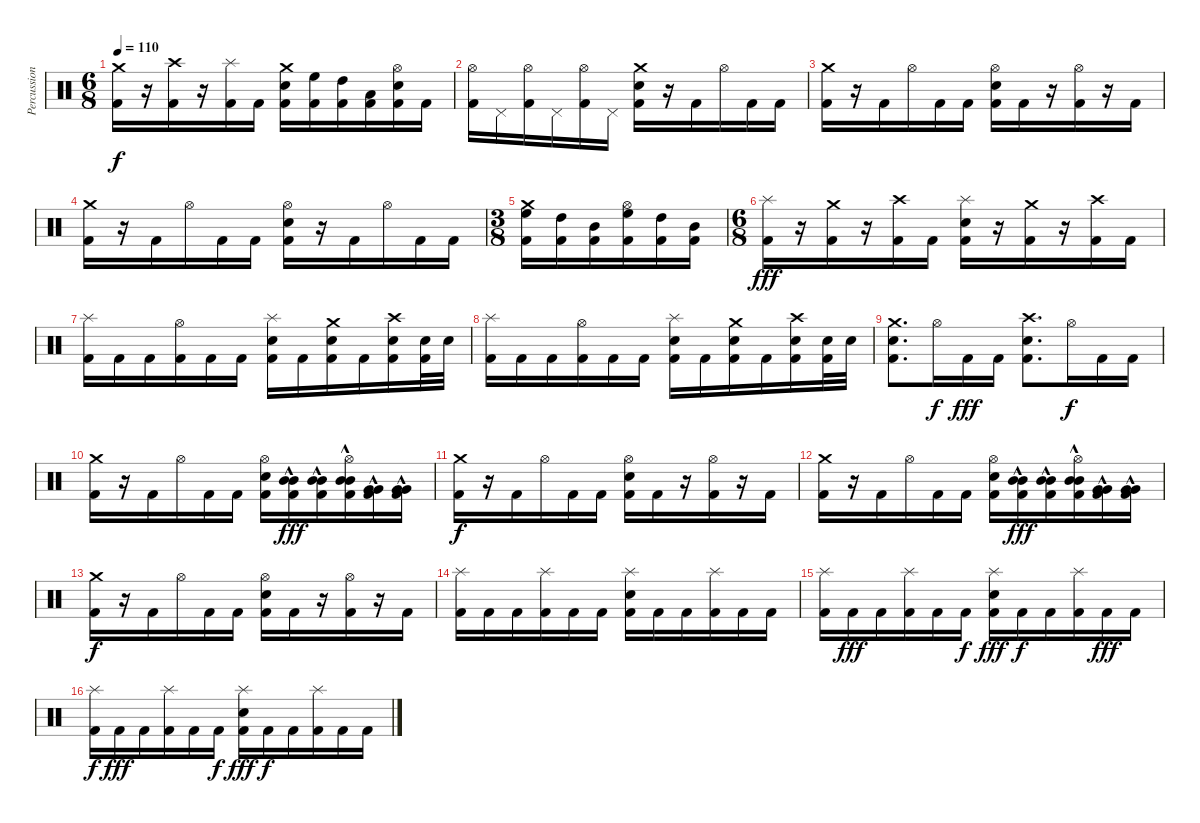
\track ("Percussion" "Percussion") {instrument percussion}
\staff {score}
\articulation defaults
\ts (6 8)
\tempo 110
\clef neutral
\ks c
("Crash medium (hit)" "Kick (hit) 2").16{dy f} r.16 ("Crash high (hit)" "Kick (hit) 2").16 r.16 ("Splash (hit)" "Kick (hit) 2").16 "Kick (hit) 2".16 ("Crash medium (hit)" "Snare (hit) 2" "Kick (hit) 2").16 ("High Floor Tom (hit)" "Kick (hit) 2").16 ("High Tom (hit)" "Kick (hit) 2").16 ("Low Tom (hit)" "Kick (hit) 2").16 ("Hi-Hat (open)" "Snare (hit) 2" "Kick (hit) 2").16 "Kick (hit) 2".16 |
("Hi-Hat (open)" "Kick (hit) 2").16 "Pedal Hi-Hat (hit)".16 ("Hi-Hat (open)" "Kick (hit) 2").16 "Pedal Hi-Hat (hit)".16 ("Hi-Hat (open)" "Kick (hit) 2").16 "Pedal Hi-Hat (hit)".16 ("Crash medium (hit)" "Snare (hit) 2" "Kick (hit) 2").16 r.16 "Kick (hit) 2".16 "Hi-Hat (open)".16 "Kick (hit) 2".16 "Kick (hit) 2".16 |
("Crash medium (hit)" "Kick (hit) 2").16 r.16 "Kick (hit) 2".16 "Hi-Hat (open)".16 "Kick (hit) 2".16 "Kick (hit) 2".16 ("Hi-Hat (open)" "Snare (hit) 2" "Kick (hit) 2").16 "Kick (hit) 2".16 r.16 ("Hi-Hat (open)" "Kick (hit) 2").16 r.16 "Kick (hit) 2".16 |
("Crash medium (hit)" "Kick (hit) 2").16 r.16 "Kick (hit) 2".16 "Hi-Hat (open)".16 "Kick (hit) 2".16 "Kick (hit) 2".16 ("Hi-Hat (open)" "Snare (hit) 2" "Kick (hit) 2").16 r.16 "Kick (hit) 2".16 "Hi-Hat (open)".16 "Kick (hit) 2".16 "Kick (hit) 2".16 |
\ts (3 8)
("Crash medium (hit)" "High Floor Tom (hit)" "Kick (hit) 2").16 ("High Tom (hit)" "Kick (hit) 2").16 ("Mid Tom (hit)" "Kick (hit) 2").16 ("Hi-Hat (open)" "High Floor Tom (hit)" "Kick (hit) 2").16 ("High Tom (hit)" "Kick (hit) 2").16 ("Mid Tom (hit)" "Kick (hit) 2").16 |
\ts (6 8)
("Splash (hit)" "Kick (hit) 2").16{dy fff} r.16 ("Crash medium (hit)" "Kick (hit) 2").16 r.16 ("Crash high (hit)" "Kick (hit) 2").16 "Kick (hit) 2".16 ("Splash (hit)" "Snare (hit) 2" "Kick (hit) 2").16 r.16 ("Crash medium (hit)" "Kick (hit) 2").16 r.16 ("Crash high (hit)" "Kick (hit) 2").16 "Kick (hit) 2".16 |
("Splash (hit)" "Kick (hit) 2").16 "Kick (hit) 2".16 "Kick (hit) 2".16 ("Hi-Hat (open)" "Kick (hit) 2").16 "Kick (hit) 2".16 "Kick (hit) 2".16 ("Splash (hit)" "Snare (hit) 2" "Kick (hit) 2").16 "Kick (hit) 2".16 ("Crash medium (hit)" "Snare (hit) 2" "Kick (hit) 2").16 "Kick (hit) 2".16 ("Crash high (hit)" "Snare (hit) 2" "Kick (hit) 2").16 ("Snare (hit) 2" "Kick (hit) 2").32 "Snare (hit) 2".32 |
("Splash (hit)" "Kick (hit) 2").16 "Kick (hit) 2".16 "Kick (hit) 2".16 ("Hi-Hat (open)" "Kick (hit) 2").16 "Kick (hit) 2".16 "Kick (hit) 2".16 ("Splash (hit)" "Snare (hit) 2" "Kick (hit) 2").16 "Kick (hit) 2".16 ("Crash medium (hit)" "Snare (hit) 2" "Kick (hit) 2").16 "Kick (hit) 2".16 ("Crash high (hit)" "Snare (hit) 2" "Kick (hit) 2").16 ("Snare (hit) 2" "Kick (hit) 2").32 "Snare (hit) 2".32 |
("Crash medium (hit)" "Snare (hit) 2" "Kick (hit) 2").8{d} "Hi-Hat (open)".16{dy f} "Kick (hit) 2".16{dy fff} "Kick (hit) 2".16 ("Crash high (hit)" "Snare (hit) 2" "Kick (hit) 2").8{d} "Hi-Hat (open)".16{dy f} "Kick (hit) 2".16 "Kick (hit) 2".16 |
("Crash medium (hit)" "Kick (hit) 2").16 r.16 "Kick (hit) 2".16 "Hi-Hat (open)".16 "Kick (hit) 2".16 "Kick (hit) 2".16 ("Hi-Hat (open)" "Snare (hit) 2" "Kick (hit) 2").16 ("Mid Tom (hit)"{hac} "Mid Tom (hit)"{hac} "Kick (hit) 2").16{dy fff} ("Mid Tom (hit)"{hac} "Mid Tom (hit)"{hac} "Kick (hit) 2").16 ("Hi-Hat (open)" "Mid Tom (hit)"{hac} "Mid Tom (hit)"{hac} "Kick (hit) 2").16 ("Very Low Tom (hit)"{hac} "Very Low Tom (hit)"{hac} "Kick (hit) 2").16 ("Very Low Tom (hit)"{hac} "Very Low Tom (hit)"{hac} "Kick (hit) 2").16 |
("Crash medium (hit)" "Kick (hit) 2").16{dy f} r.16 "Kick (hit) 2".16 "Hi-Hat (open)".16 "Kick (hit) 2".16 "Kick (hit) 2".16 ("Hi-Hat (open)" "Snare (hit) 2" "Kick (hit) 2").16 "Kick (hit) 2".16 r.16 ("Hi-Hat (open)" "Kick (hit) 2").16 r.16 "Kick (hit) 2".16 |
("Crash medium (hit)" "Kick (hit) 2").16 r.16 "Kick (hit) 2".16 "Hi-Hat (open)".16 "Kick (hit) 2".16 "Kick (hit) 2".16 ("Hi-Hat (open)" "Snare (hit) 2" "Kick (hit) 2").16 ("Mid Tom (hit)"{hac} "Mid Tom (hit)"{hac} "Kick (hit) 2").16{dy fff} ("Mid Tom (hit)"{hac} "Mid Tom (hit)"{hac} "Kick (hit) 2").16 ("Hi-Hat (open)" "Mid Tom (hit)"{hac} "Mid Tom (hit)"{hac} "Kick (hit) 2").16 ("Very Low Tom (hit)"{hac} "Very Low Tom (hit)"{hac} "Kick (hit) 2").16 ("Very Low Tom (hit)"{hac} "Very Low Tom (hit)"{hac} "Kick (hit) 2").16 |
("Crash medium (hit)" "Kick (hit) 2").16{dy f} r.16 "Kick (hit) 2".16 "Hi-Hat (open)".16 "Kick (hit) 2".16 "Kick (hit) 2".16 ("Hi-Hat (open)" "Snare (hit) 2" "Kick (hit) 2").16 "Kick (hit) 2".16 r.16 ("Hi-Hat (open)" "Kick (hit) 2").16 r.16 "Kick (hit) 2".16 |
("Splash (hit)" "Kick (hit) 2").16 "Kick (hit) 2".16 "Kick (hit) 2".16 ("Splash (hit)" "Kick (hit) 2").16 "Kick (hit) 2".16 "Kick (hit) 2".16 ("Splash (hit)" "Snare (hit) 2" "Kick (hit) 2").16 "Kick (hit) 2".16 "Kick (hit) 2".16 ("Splash (hit)" "Kick (hit) 2").16 "Kick (hit) 2".16 "Kick (hit) 2".16 |
("Splash (hit)" "Kick (hit) 2").16 "Kick (hit) 2".16{dy fff} "Kick (hit) 2".16 ("Splash (hit)" "Kick (hit) 2").16 "Kick (hit) 2".16 "Kick (hit) 2".16{dy f} ("Splash (hit)" "Snare (hit) 2" "Kick (hit) 2").16{dy fff} "Kick (hit) 2".16{dy f} "Kick (hit) 2".16 ("Splash (hit)" "Kick (hit) 2").16 "Kick (hit) 2".16{dy fff} "Kick (hit) 2".16 |
("Splash (hit)" "Kick (hit) 2").16{dy f} "Kick (hit) 2".16{dy fff} "Kick (hit) 2".16 ("Splash (hit)" "Kick (hit) 2").16 "Kick (hit) 2".16 "Kick (hit) 2".16{dy f} ("Splash (hit)" "Snare (hit) 2" "Kick (hit) 2").16{dy fff} "Kick (hit) 2".16{dy f} "Kick (hit) 2".16 ("Splash (hit)" "Kick (hit) 2").16 "Kick (hit) 2".16 "Kick (hit) 2".16
